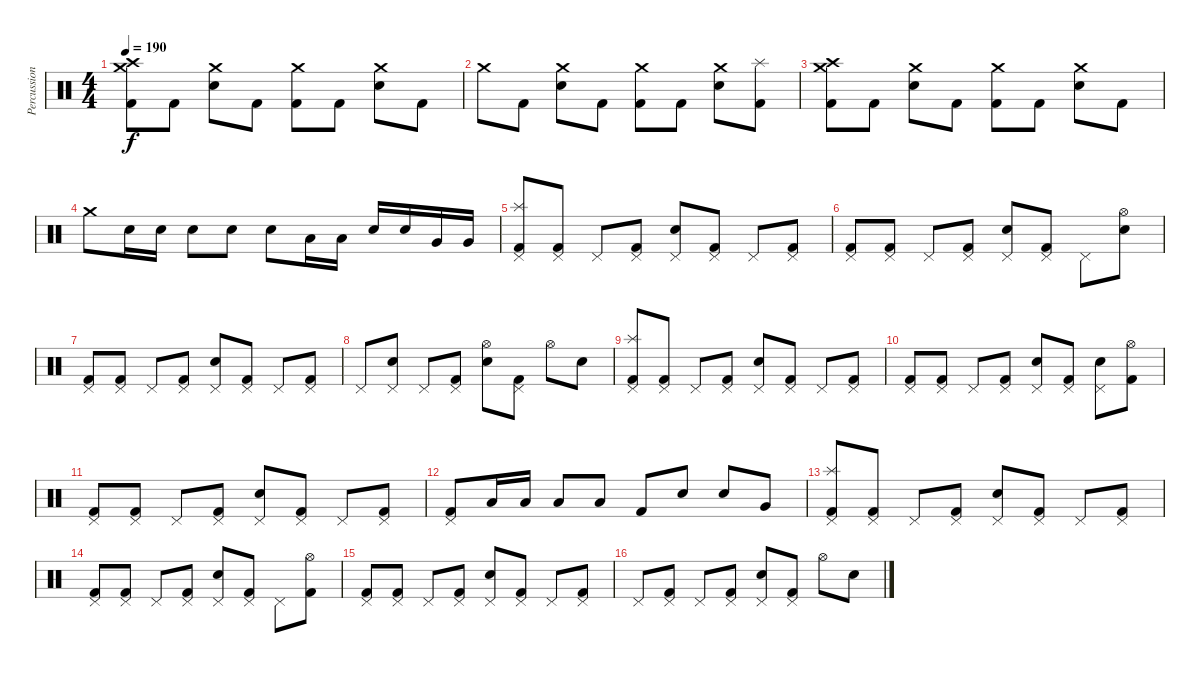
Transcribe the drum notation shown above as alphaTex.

\track ("Percussion" "Percussion") {instrument percussion}
\staff {score}
\articulation defaults
\ts (4 4)
\tempo 190
\clef neutral
\ks c
("Crash high (hit)" "Crash medium (hit)" "Kick (hit) 2").8{dy f} "Kick (hit) 2".8 ("Crash medium (hit)" "Electric Snare (hit)").8 "Kick (hit) 2".8 ("Crash medium (hit)" "Kick (hit) 2").8 "Kick (hit) 2".8 ("Crash medium (hit)" "Electric Snare (hit)").8 "Kick (hit) 2".8 |
"Crash medium (hit)".8 "Kick (hit) 2".8 ("Crash medium (hit)" "Electric Snare (hit)").8 "Kick (hit) 2".8 ("Crash medium (hit)" "Kick (hit) 2").8 "Kick (hit) 2".8 ("Crash medium (hit)" "Electric Snare (hit)").8 ("Splash (hit)" "Kick (hit) 2").8 |
("Crash high (hit)" "Crash medium (hit)" "Kick (hit) 2").8 "Kick (hit) 2".8 ("Crash medium (hit)" "Electric Snare (hit)").8 "Kick (hit) 2".8 ("Crash medium (hit)" "Kick (hit) 2").8 "Kick (hit) 2".8 ("Crash medium (hit)" "Electric Snare (hit)").8 "Kick (hit) 2".8 |
"Crash medium (hit)".8 "Electric Snare (hit)".16 "Electric Snare (hit)".16 "Electric Snare (hit)".8 "Electric Snare (hit)".8 "Electric Snare (hit)".8 "Low Tom (hit)".16 "Low Tom (hit)".16 "Electric Snare (hit)".16 "Electric Snare (hit)".16 "Very Low Tom (hit)".16 "Very Low Tom (hit)".16 |
("Splash (hit)" "Pedal Hi-Hat (hit)" "Kick (hit) 2").8 ("Pedal Hi-Hat (hit)" "Kick (hit) 2").8 "Pedal Hi-Hat (hit)".8 ("Pedal Hi-Hat (hit)" "Kick (hit) 2").8 ("Pedal Hi-Hat (hit)" "Electric Snare (hit)").8 ("Pedal Hi-Hat (hit)" "Kick (hit) 2").8 "Pedal Hi-Hat (hit)".8 ("Pedal Hi-Hat (hit)" "Kick (hit) 2").8 |
("Pedal Hi-Hat (hit)" "Kick (hit) 2").8 ("Pedal Hi-Hat (hit)" "Kick (hit) 2").8 "Pedal Hi-Hat (hit)".8 ("Pedal Hi-Hat (hit)" "Kick (hit) 2").8 ("Pedal Hi-Hat (hit)" "Electric Snare (hit)").8 ("Pedal Hi-Hat (hit)" "Kick (hit) 2").8 "Pedal Hi-Hat (hit)".8 ("Hi-Hat (open)" "Electric Snare (hit)").8 |
("Pedal Hi-Hat (hit)" "Kick (hit) 2").8 ("Pedal Hi-Hat (hit)" "Kick (hit) 2").8 "Pedal Hi-Hat (hit)".8 ("Pedal Hi-Hat (hit)" "Kick (hit) 2").8 ("Pedal Hi-Hat (hit)" "Electric Snare (hit)").8 ("Pedal Hi-Hat (hit)" "Kick (hit) 2").8 "Pedal Hi-Hat (hit)".8 ("Pedal Hi-Hat (hit)" "Kick (hit) 2").8 |
"Pedal Hi-Hat (hit)".8 ("Pedal Hi-Hat (hit)" "Electric Snare (hit)").8 "Pedal Hi-Hat (hit)".8 ("Pedal Hi-Hat (hit)" "Kick (hit) 2").8 ("Hi-Hat (open)" "Electric Snare (hit)").8 ("Pedal Hi-Hat (hit)" "Kick (hit) 2").8 "Hi-Hat (open)".8 "Electric Snare (hit)".8 |
("Splash (hit)" "Pedal Hi-Hat (hit)" "Kick (hit) 2").8 ("Pedal Hi-Hat (hit)" "Kick (hit) 2").8 "Pedal Hi-Hat (hit)".8 ("Pedal Hi-Hat (hit)" "Kick (hit) 2").8 ("Pedal Hi-Hat (hit)" "Electric Snare (hit)").8 ("Pedal Hi-Hat (hit)" "Kick (hit) 2").8 "Pedal Hi-Hat (hit)".8 ("Pedal Hi-Hat (hit)" "Kick (hit) 2").8 |
("Pedal Hi-Hat (hit)" "Kick (hit) 2").8 ("Pedal Hi-Hat (hit)" "Kick (hit) 2").8 "Pedal Hi-Hat (hit)".8 ("Pedal Hi-Hat (hit)" "Kick (hit) 2").8 ("Pedal Hi-Hat (hit)" "Electric Snare (hit)").8 ("Pedal Hi-Hat (hit)" "Kick (hit) 2").8 ("Pedal Hi-Hat (hit)" "Electric Snare (hit)").8 ("Hi-Hat (open)" "Kick (hit) 2").8 |
("Pedal Hi-Hat (hit)" "Kick (hit) 2").8 ("Pedal Hi-Hat (hit)" "Kick (hit) 2").8 "Pedal Hi-Hat (hit)".8 ("Pedal Hi-Hat (hit)" "Kick (hit) 2").8 ("Pedal Hi-Hat (hit)" "Electric Snare (hit)").8 ("Pedal Hi-Hat (hit)" "Kick (hit) 2").8 "Pedal Hi-Hat (hit)".8 ("Pedal Hi-Hat (hit)" "Kick (hit) 2").8 |
("Pedal Hi-Hat (hit)" "Kick (hit) 2").8 "Low Tom (hit)".16 "Low Tom (hit)".16 "Low Tom (hit)".8 "Low Tom (hit)".8 "Kick (hit) 2".8 "Electric Snare (hit)".8 "Electric Snare (hit)".8 "Very Low Tom (hit)".8 |
("Splash (hit)" "Pedal Hi-Hat (hit)" "Kick (hit) 2").8 ("Pedal Hi-Hat (hit)" "Kick (hit) 2").8 "Pedal Hi-Hat (hit)".8 ("Pedal Hi-Hat (hit)" "Kick (hit) 2").8 ("Pedal Hi-Hat (hit)" "Electric Snare (hit)").8 ("Pedal Hi-Hat (hit)" "Kick (hit) 2").8 "Pedal Hi-Hat (hit)".8 ("Pedal Hi-Hat (hit)" "Kick (hit) 2").8 |
("Pedal Hi-Hat (hit)" "Kick (hit) 2").8 ("Pedal Hi-Hat (hit)" "Kick (hit) 2").8 "Pedal Hi-Hat (hit)".8 ("Pedal Hi-Hat (hit)" "Kick (hit) 2").8 ("Pedal Hi-Hat (hit)" "Electric Snare (hit)").8 ("Pedal Hi-Hat (hit)" "Kick (hit) 2").8 "Pedal Hi-Hat (hit)".8 ("Hi-Hat (open)" "Kick (hit) 2").8 |
("Pedal Hi-Hat (hit)" "Kick (hit) 2").8 ("Pedal Hi-Hat (hit)" "Kick (hit) 2").8 "Pedal Hi-Hat (hit)".8 ("Pedal Hi-Hat (hit)" "Kick (hit) 2").8 ("Pedal Hi-Hat (hit)" "Electric Snare (hit)").8 ("Pedal Hi-Hat (hit)" "Kick (hit) 2").8 "Pedal Hi-Hat (hit)".8 ("Pedal Hi-Hat (hit)" "Kick (hit) 2").8 |
"Pedal Hi-Hat (hit)".8 ("Pedal Hi-Hat (hit)" "Kick (hit) 2").8 "Pedal Hi-Hat (hit)".8 ("Pedal Hi-Hat (hit)" "Kick (hit) 2").8 ("Pedal Hi-Hat (hit)" "Electric Snare (hit)").8 ("Pedal Hi-Hat (hit)" "Kick (hit) 2").8 "Hi-Hat (open)".8 "Electric Snare (hit)".8
